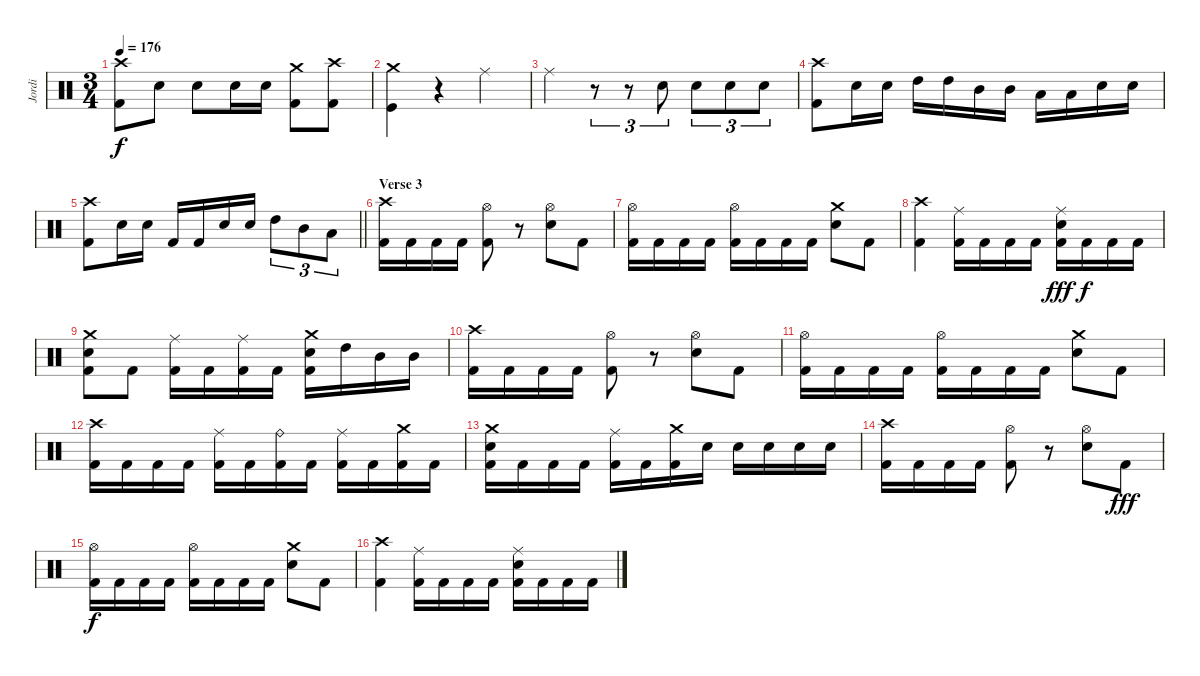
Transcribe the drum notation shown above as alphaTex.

\track ("Jordi" "Jordi") {instrument percussion}
\staff {score}
\articulation defaults
\ts (3 4)
\tempo 176
\clef neutral
\ks c
("Crash high (hit)" "Kick (hit) 2").8{dy f} "Snare (hit) 2".8 "Snare (hit) 2".8 "Snare (hit) 2".16 "Snare (hit) 2".16 ("Crash medium (hit)" "Kick (hit) 2").8 ("Crash high (hit)" "Kick (hit) 2").8 |
("Crash medium (hit)" "Kick (hit)").4 r.4 "Ride (middle)".4 |
"Ride (middle)".4 r.8{tu (3 2)} r.8{tu (3 2)} "Snare (hit) 2".8{tu (3 2)} "Snare (hit) 2".8{tu (3 2)} "Snare (hit) 2".8{tu (3 2)} "Snare (hit) 2".8{tu (3 2)} |
("Crash high (hit)" "Kick (hit) 2").8 "Snare (hit) 2".16 "Snare (hit) 2".16 "High Tom (hit)".16 "High Tom (hit)".16 "Mid Tom (hit)".16 "Mid Tom (hit)".16 "Low Floor Tom (hit)".16 "Low Floor Tom (hit)".16 "Snare (hit) 2".16 "Snare (hit) 2".16 |
\barLineRight lightlight
("Crash high (hit)" "Kick (hit) 2").8 "Snare (hit) 2".16 "Snare (hit) 2".16 "Kick (hit) 2".16 "Kick (hit) 2".16 "Snare (hit) 2".16 "Snare (hit) 2".16 "High Tom (hit)".8{tu (3 2)} "Mid Tom (hit)".8{tu (3 2)} "Low Floor Tom (hit)".8{tu (3 2)} |
\section ("" "Verse 3")
("Crash high (hit)" "Kick (hit) 2").16 "Kick (hit) 2".16 "Kick (hit) 2".16 "Kick (hit) 2".16 ("Hi-Hat (open)" "Kick (hit) 2").8 r.8 ("Hi-Hat (open)" "Snare (hit) 2").8 "Kick (hit) 2".8 |
("Hi-Hat (open)" "Kick (hit) 2").16 "Kick (hit) 2".16 "Kick (hit) 2".16 "Kick (hit) 2".16 ("Hi-Hat (open)" "Kick (hit) 2").16 "Kick (hit) 2".16 "Kick (hit) 2".16 "Kick (hit) 2".16 ("Crash medium (hit)" "Snare (hit) 2").8 "Kick (hit) 2".8 |
("Crash high (hit)" "Kick (hit) 2").4 ("Ride (middle)" "Kick (hit) 2").16 "Kick (hit) 2".16 "Kick (hit) 2".16 "Kick (hit) 2".16 ("Ride (middle)" "Snare (hit) 2" "Kick (hit) 2").16{dy fff} "Kick (hit) 2".16{dy f} "Kick (hit) 2".16 "Kick (hit) 2".16 |
("Crash medium (hit)" "Snare (hit) 2" "Kick (hit) 2").8 "Kick (hit) 2".8 ("Ride (middle)" "Kick (hit) 2").16 "Kick (hit) 2".16 ("Ride (middle)" "Kick (hit) 2").16 "Kick (hit) 2".16 ("Crash medium (hit)" "Snare (hit) 2" "Kick (hit) 2").16 "High Tom (hit)".16 "Mid Tom (hit)".16 "Mid Tom (hit)".16 |
("Crash high (hit)" "Kick (hit) 2").16 "Kick (hit) 2".16 "Kick (hit) 2".16 "Kick (hit) 2".16 ("Hi-Hat (open)" "Kick (hit) 2").8 r.8 ("Hi-Hat (open)" "Snare (hit) 2").8 "Kick (hit) 2".8 |
("Hi-Hat (open)" "Kick (hit) 2").16 "Kick (hit) 2".16 "Kick (hit) 2".16 "Kick (hit) 2".16 ("Hi-Hat (open)" "Kick (hit) 2").16 "Kick (hit) 2".16 "Kick (hit) 2".16 "Kick (hit) 2".16 ("Crash medium (hit)" "Snare (hit) 2").8 "Kick (hit) 2".8 |
("Crash high (hit)" "Kick (hit) 2").16 "Kick (hit) 2".16 "Kick (hit) 2".16 "Kick (hit) 2".16 ("Ride (middle)" "Kick (hit) 2").16 "Kick (hit) 2".16 ("Ride (bell)" "Kick (hit) 2").16 "Kick (hit) 2".16 ("Ride (middle)" "Kick (hit) 2").16 "Kick (hit) 2".16 ("Crash medium (hit)" "Kick (hit) 2").16 "Kick (hit) 2".16 |
("Crash medium (hit)" "Snare (hit) 2" "Kick (hit) 2").16 "Kick (hit) 2".16 "Kick (hit) 2".16 "Kick (hit) 2".16 ("Ride (middle)" "Kick (hit) 2").16 "Kick (hit) 2".16 ("Crash medium (hit)" "Kick (hit) 2").16 "Snare (hit) 2".16 "Snare (hit) 2".16 "Snare (hit) 2".16 "Snare (hit) 2".16 "Snare (hit) 2".16 |
("Crash high (hit)" "Kick (hit) 2").16 "Kick (hit) 2".16 "Kick (hit) 2".16 "Kick (hit) 2".16 ("Hi-Hat (open)" "Kick (hit) 2").8 r.8 ("Hi-Hat (open)" "Snare (hit) 2").8 "Kick (hit) 2".8{dy fff} |
("Hi-Hat (open)" "Kick (hit) 2").16{dy f} "Kick (hit) 2".16 "Kick (hit) 2".16 "Kick (hit) 2".16 ("Hi-Hat (open)" "Kick (hit) 2").16 "Kick (hit) 2".16 "Kick (hit) 2".16 "Kick (hit) 2".16 ("Crash medium (hit)" "Snare (hit) 2").8 "Kick (hit) 2".8 |
("Crash high (hit)" "Kick (hit) 2").4 ("Ride (middle)" "Kick (hit) 2").16 "Kick (hit) 2".16 "Kick (hit) 2".16 "Kick (hit) 2".16 ("Ride (middle)" "Snare (hit) 2" "Kick (hit) 2").16 "Kick (hit) 2".16 "Kick (hit) 2".16 "Kick (hit) 2".16
